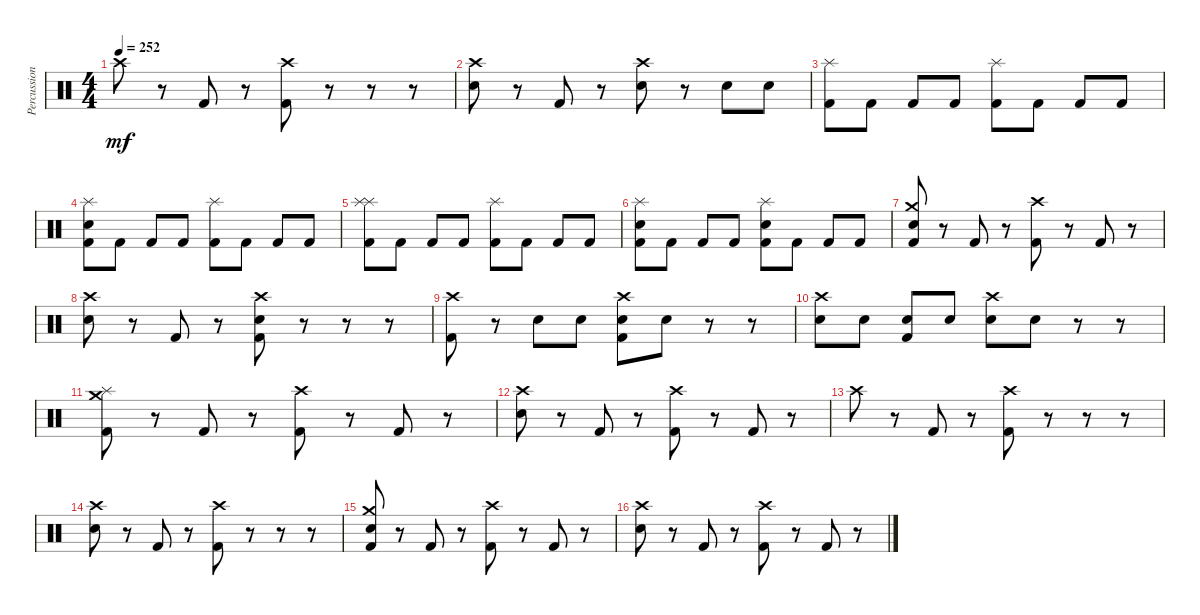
\track ("Percussion" "Percussion") {instrument percussion}
\staff {score}
\articulation defaults
\ts (4 4)
\tempo 252
\clef neutral
\ks c "Crash high (hit)".8{dy mf}
r.8 "Kick (hit) 2".8 r.8 ("Kick (hit) 2" "Crash high (hit)").8 r.8 r.8 r.8 |
("Crash high (hit)" "Electric Snare (hit)").8 r.8 "Kick (hit) 2".8 r.8 ("Crash high (hit)" "Electric Snare (hit)").8 r.8 "Electric Snare (hit)".8 "Electric Snare (hit)".8 |
("Kick (hit) 2" "Splash (hit)").8 "Kick (hit) 2".8 "Kick (hit) 2".8 "Kick (hit) 2".8 ("Kick (hit) 2" "Splash (hit)").8 "Kick (hit) 2".8 "Kick (hit) 2".8 "Kick (hit) 2".8 |
("Kick (hit) 2" "Electric Snare (hit)" "Splash (hit)").8 "Kick (hit) 2".8 "Kick (hit) 2".8 "Kick (hit) 2".8 ("Kick (hit) 2" "Splash (hit)").8 "Kick (hit) 2".8 "Kick (hit) 2".8 "Kick (hit) 2".8 |
("Kick (hit) 2" "Splash (hit)" "Splash (hit)").8 "Kick (hit) 2".8 "Kick (hit) 2".8 "Kick (hit) 2".8 ("Kick (hit) 2" "Splash (hit)").8 "Kick (hit) 2".8 "Kick (hit) 2".8 "Kick (hit) 2".8 |
("Kick (hit) 2" "Electric Snare (hit)" "Splash (hit)").8 "Kick (hit) 2".8 "Kick (hit) 2".8 "Kick (hit) 2".8 ("Kick (hit) 2" "Splash (hit)" "Electric Snare (hit)").8 "Kick (hit) 2".8 "Kick (hit) 2".8 "Kick (hit) 2".8 |
("Kick (hit) 2" "Crash medium (hit)" "Snare (hit)").8 r.8 "Kick (hit) 2".8 r.8 ("Kick (hit) 2" "Crash high (hit)").8 r.8 "Kick (hit) 2".8 r.8 |
("Electric Snare (hit)" "Crash high (hit)").8 r.8 "Kick (hit) 2".8 r.8 ("Kick (hit) 2" "Crash high (hit)" "Electric Snare (hit)").8 r.8 r.8 r.8 |
("Crash high (hit)" "Kick (hit) 2").8 r.8 "Electric Snare (hit)".8 "Electric Snare (hit)".8 ("Kick (hit) 2" "Crash high (hit)" "Electric Snare (hit)").8 "Electric Snare (hit)".8 r.8 r.8 |
("Crash high (hit)" "Electric Snare (hit)").8 "Electric Snare (hit)".8 ("Kick (hit) 2" "Electric Snare (hit)").8 "Electric Snare (hit)".8 ("Crash high (hit)" "Electric Snare (hit)").8 "Electric Snare (hit)".8 r.8 r.8 |
("Kick (hit) 2" "Splash (hit)" "Crash medium (hit)").8 r.8 "Kick (hit) 2".8 r.8 ("Kick (hit) 2" "Crash high (hit)").8 r.8 "Kick (hit) 2".8 r.8 |
("Electric Snare (hit)" "Crash high (hit)").8 r.8 "Kick (hit) 2".8 r.8 ("Kick (hit) 2" "Crash high (hit)").8 r.8 "Kick (hit) 2".8 r.8 |
"Crash high (hit)".8 r.8 "Kick (hit) 2".8 r.8 ("Kick (hit) 2" "Crash high (hit)").8 r.8 r.8 r.8 |
("Electric Snare (hit)" "Crash high (hit)").8 r.8 "Kick (hit) 2".8 r.8 ("Kick (hit) 2" "Crash high (hit)").8 r.8 r.8 r.8 |
("Kick (hit) 2" "Crash medium (hit)" "Snare (hit)").8 r.8 "Kick (hit) 2".8 r.8 ("Kick (hit) 2" "Crash high (hit)").8 r.8 "Kick (hit) 2".8 r.8 |
("Electric Snare (hit)" "Crash high (hit)").8 r.8 "Kick (hit) 2".8 r.8 ("Kick (hit) 2" "Crash high (hit)").8 r.8 "Kick (hit) 2".8 r.8
